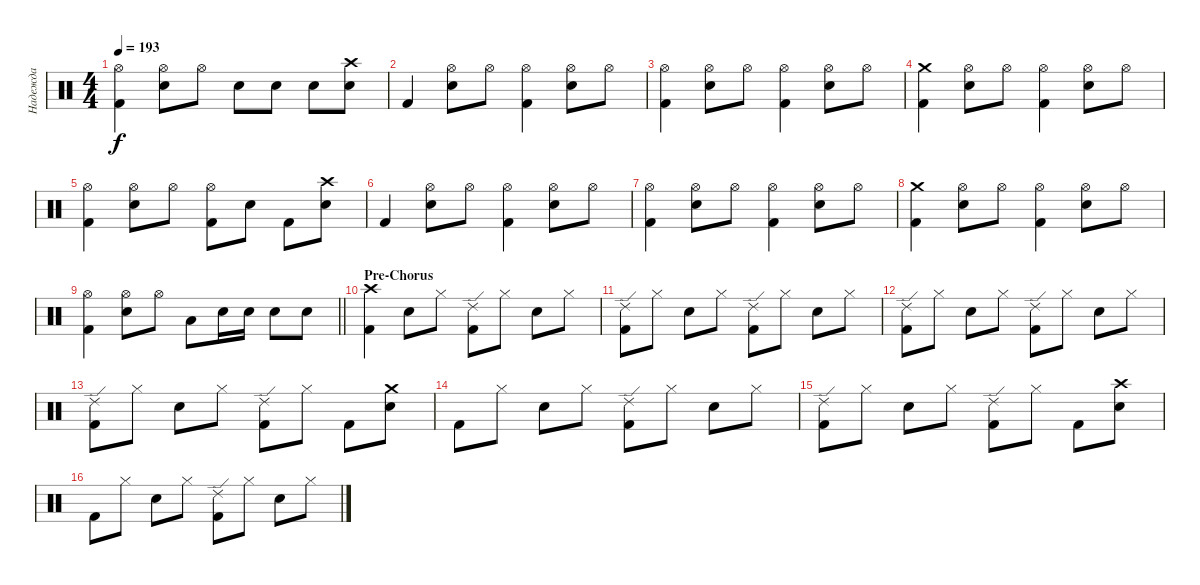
\track ("Надежда" "Надежда") {instrument percussion}
\staff {score}
\articulation defaults
\ts (4 4)
\tempo 193
\clef neutral
\ks c
("Hi-Hat (open)" "Kick (hit) 2").4{dy f} ("Hi-Hat (open)" "Snare (hit) 2").8 "Hi-Hat (open)".8 "Snare (hit) 2".8 "Snare (hit) 2".8 "Snare (hit) 2".8 ("Crash high (hit)" "Snare (hit) 2").8 |
"Kick (hit) 2".4 ("Hi-Hat (open)" "Snare (hit) 2").8 "Hi-Hat (open)".8 ("Hi-Hat (open)" "Kick (hit) 2").4 ("Hi-Hat (open)" "Snare (hit) 2").8 "Hi-Hat (open)".8 |
("Hi-Hat (open)" "Kick (hit) 2").4 ("Hi-Hat (open)" "Snare (hit) 2").8 "Hi-Hat (open)".8 ("Hi-Hat (open)" "Kick (hit) 2").4 ("Hi-Hat (open)" "Snare (hit) 2").8 "Hi-Hat (open)".8 |
("Crash medium (hit)" "Kick (hit) 2").4 ("Hi-Hat (open)" "Snare (hit) 2").8 "Hi-Hat (open)".8 ("Hi-Hat (open)" "Kick (hit) 2").4 ("Hi-Hat (open)" "Snare (hit) 2").8 "Hi-Hat (open)".8 |
("Hi-Hat (open)" "Kick (hit) 2").4 ("Hi-Hat (open)" "Snare (hit) 2").8 "Hi-Hat (open)".8 ("Hi-Hat (open)" "Kick (hit) 2").8 "Snare (hit) 2".8 "Kick (hit) 2".8 ("Crash high (hit)" "Snare (hit) 2").8 |
"Kick (hit) 2".4 ("Hi-Hat (open)" "Snare (hit) 2").8 "Hi-Hat (open)".8 ("Hi-Hat (open)" "Kick (hit) 2").4 ("Hi-Hat (open)" "Snare (hit) 2").8 "Hi-Hat (open)".8 |
("Hi-Hat (open)" "Kick (hit) 2").4 ("Hi-Hat (open)" "Snare (hit) 2").8 "Hi-Hat (open)".8 ("Hi-Hat (open)" "Kick (hit) 2").4 ("Hi-Hat (open)" "Snare (hit) 2").8 "Hi-Hat (open)".8 |
("Crash medium (hit)" "Kick (hit) 2").4 ("Hi-Hat (open)" "Snare (hit) 2").8 "Hi-Hat (open)".8 ("Hi-Hat (open)" "Kick (hit) 2").4 ("Hi-Hat (open)" "Snare (hit) 2").8 "Hi-Hat (open)".8 |
\barLineRight lightlight
("Hi-Hat (open)" "Kick (hit) 2").4 ("Hi-Hat (open)" "Snare (hit) 2").8 "Hi-Hat (open)".8 "Low Tom (hit)".8 "Snare (hit) 2".16 "Snare (hit) 2".16 "Snare (hit) 2".8 "Snare (hit) 2".8 |
\section ("" "Pre-Chorus")
("Crash high (hit)" "Kick (hit) 2").4 "Snare (hit) 2".8 "Hi-Hat (closed)".8 ("Ride (edge) 2" "Kick (hit) 2").8 "Hi-Hat (closed)".8 "Snare (hit) 2".8 "Hi-Hat (closed)".8 |
("Ride (edge) 2" "Kick (hit) 2").8 "Hi-Hat (closed)".8 "Snare (hit) 2".8 "Hi-Hat (closed)".8 ("Ride (edge) 2" "Kick (hit) 2").8 "Hi-Hat (closed)".8 "Snare (hit) 2".8 "Hi-Hat (closed)".8 |
("Ride (edge) 2" "Kick (hit) 2").8 "Hi-Hat (closed)".8 "Snare (hit) 2".8 "Hi-Hat (closed)".8 ("Ride (edge) 2" "Kick (hit) 2").8 "Hi-Hat (closed)".8 "Snare (hit) 2".8 "Hi-Hat (closed)".8 |
("Ride (edge) 2" "Kick (hit) 2").8 "Hi-Hat (closed)".8 "Snare (hit) 2".8 "Hi-Hat (closed)".8 ("Ride (edge) 2" "Kick (hit) 2").8 "Hi-Hat (closed)".8 "Kick (hit) 2".8 ("Crash medium (hit)" "Snare (hit) 2").8 |
"Kick (hit) 2".8 "Hi-Hat (closed)".8 "Snare (hit) 2".8 "Hi-Hat (closed)".8 ("Ride (edge) 2" "Kick (hit) 2").8 "Hi-Hat (closed)".8 "Snare (hit) 2".8 "Hi-Hat (closed)".8 |
("Ride (edge) 2" "Kick (hit) 2").8 "Hi-Hat (closed)".8 "Snare (hit) 2".8 "Hi-Hat (closed)".8 ("Ride (edge) 2" "Kick (hit) 2").8 "Hi-Hat (closed)".8 "Kick (hit) 2".8 ("Crash high (hit)" "Snare (hit) 2").8 |
"Kick (hit) 2".8 "Hi-Hat (closed)".8 "Snare (hit) 2".8 "Hi-Hat (closed)".8 ("Ride (edge) 2" "Kick (hit) 2").8 "Hi-Hat (closed)".8 "Snare (hit) 2".8 "Hi-Hat (closed)".8
